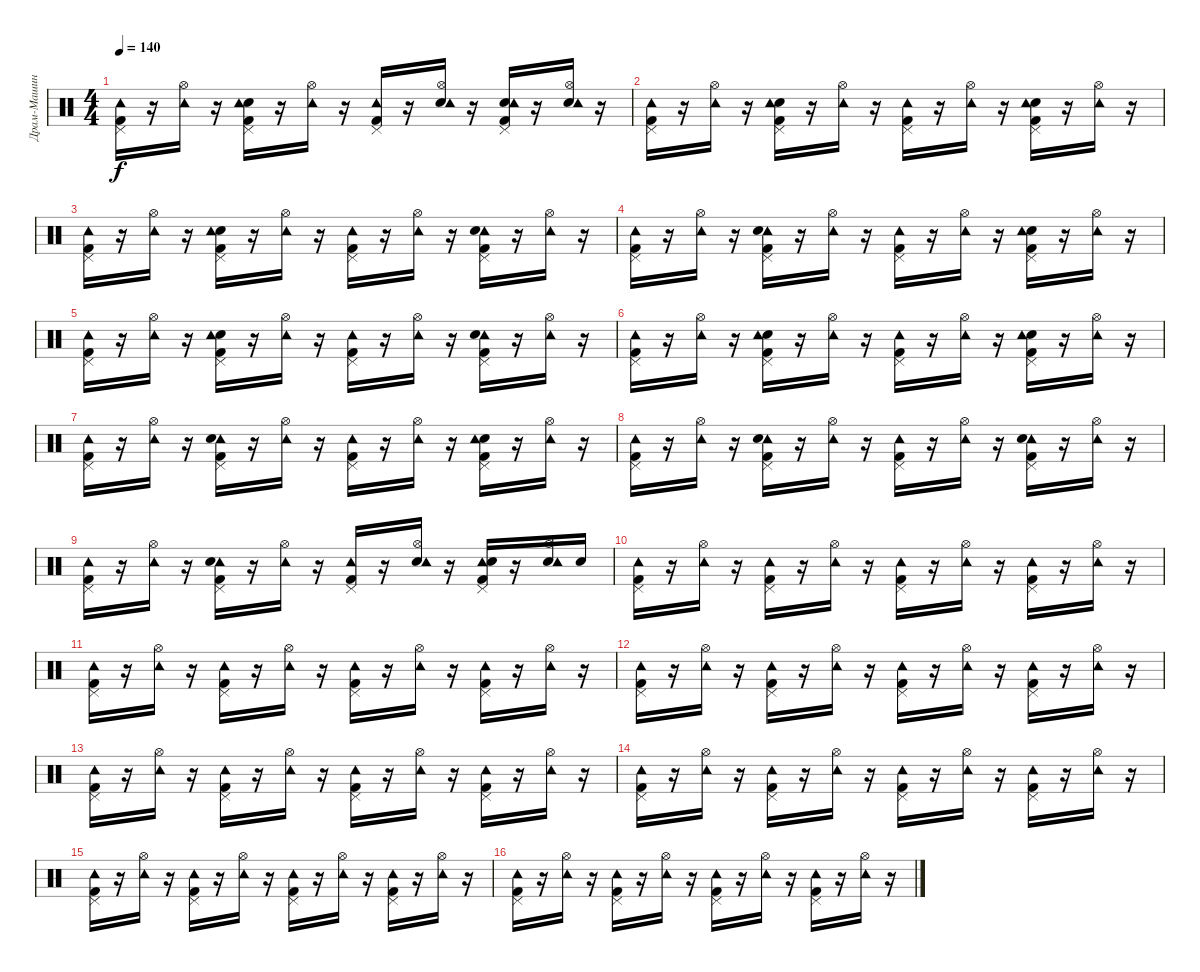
\track ("Драм-Машина" "Драм-Машин") {instrument percussion}
\staff {score}
\articulation defaults
\ts (4 4)
\tempo 140
\clef neutral
\ks c
("Pedal Hi-Hat (hit)" "Tambourine (hit)" "Kick (hit) 2").16{dy f} r.16 ("Hi-Hat (open)" "Tambourine (hit)").16 r.16 ("Kick (hit) 2" "Pedal Hi-Hat (hit)" "Snare (hit) 2" "Tambourine (hit)").16 r.16 ("Tambourine (hit)" "Hi-Hat (open)").16 r.16 ("Tambourine (hit)" "Pedal Hi-Hat (hit)" "Kick (hit) 2").16 r.16 ("Snare (hit) 2" "Tambourine (hit)" "Hi-Hat (open)").16 r.16 ("Kick (hit) 2" "Snare (hit) 2" "Tambourine (hit)" "Pedal Hi-Hat (hit)").16 r.16 ("Snare (hit) 2" "Tambourine (hit)" "Hi-Hat (open)").16 r.16 |
("Tambourine (hit)" "Kick (hit) 2" "Pedal Hi-Hat (hit)").16 r.16 ("Tambourine (hit)" "Hi-Hat (open)").16 r.16 ("Kick (hit) 2" "Snare (hit) 2" "Pedal Hi-Hat (hit)" "Tambourine (hit)").16 r.16 ("Hi-Hat (open)" "Tambourine (hit)").16 r.16 ("Kick (hit) 2" "Pedal Hi-Hat (hit)" "Tambourine (hit)").16 r.16 ("Tambourine (hit)" "Hi-Hat (open)").16 r.16 ("Kick (hit) 2" "Snare (hit) 2" "Tambourine (hit)" "Pedal Hi-Hat (hit)").16 r.16 ("Tambourine (hit)" "Hi-Hat (open)").16 r.16 |
("Kick (hit) 2" "Pedal Hi-Hat (hit)" "Tambourine (hit)").16 r.16 ("Hi-Hat (open)" "Tambourine (hit)").16 r.16 ("Kick (hit) 2" "Snare (hit) 2" "Tambourine (hit)" "Pedal Hi-Hat (hit)").16 r.16 ("Tambourine (hit)" "Hi-Hat (open)").16 r.16 ("Tambourine (hit)" "Kick (hit) 2" "Pedal Hi-Hat (hit)").16 r.16 ("Hi-Hat (open)" "Tambourine (hit)").16 r.16 ("Kick (hit) 2" "Tambourine (hit)" "Snare (hit) 2" "Pedal Hi-Hat (hit)").16 r.16 ("Tambourine (hit)" "Hi-Hat (open)").16 r.16 |
("Pedal Hi-Hat (hit)" "Kick (hit) 2" "Tambourine (hit)").16 r.16 ("Hi-Hat (open)" "Tambourine (hit)").16 r.16 ("Kick (hit) 2" "Tambourine (hit)" "Snare (hit) 2" "Pedal Hi-Hat (hit)").16 r.16 ("Hi-Hat (open)" "Tambourine (hit)").16 r.16 ("Kick (hit) 2" "Tambourine (hit)" "Pedal Hi-Hat (hit)").16 r.16 ("Hi-Hat (open)" "Tambourine (hit)").16 r.16 ("Kick (hit) 2" "Snare (hit) 2" "Tambourine (hit)" "Pedal Hi-Hat (hit)").16 r.16 ("Tambourine (hit)" "Hi-Hat (open)").16 r.16 |
("Tambourine (hit)" "Kick (hit) 2" "Pedal Hi-Hat (hit)").16 r.16 ("Tambourine (hit)" "Hi-Hat (open)").16 r.16 ("Kick (hit) 2" "Snare (hit) 2" "Pedal Hi-Hat (hit)" "Tambourine (hit)").16 r.16 ("Hi-Hat (open)" "Tambourine (hit)").16 r.16 ("Kick (hit) 2" "Tambourine (hit)" "Pedal Hi-Hat (hit)").16 r.16 ("Tambourine (hit)" "Hi-Hat (open)").16 r.16 ("Kick (hit) 2" "Tambourine (hit)" "Snare (hit) 2" "Pedal Hi-Hat (hit)").16 r.16 ("Hi-Hat (open)" "Tambourine (hit)").16 r.16 |
("Tambourine (hit)" "Pedal Hi-Hat (hit)" "Kick (hit) 2").16 r.16 ("Tambourine (hit)" "Hi-Hat (open)").16 r.16 ("Kick (hit) 2" "Pedal Hi-Hat (hit)" "Snare (hit) 2" "Tambourine (hit)").16 r.16 ("Hi-Hat (open)" "Tambourine (hit)").16 r.16 ("Kick (hit) 2" "Pedal Hi-Hat (hit)" "Tambourine (hit)").16 r.16 ("Tambourine (hit)" "Hi-Hat (open)").16 r.16 ("Kick (hit) 2" "Snare (hit) 2" "Tambourine (hit)" "Pedal Hi-Hat (hit)").16 r.16 ("Hi-Hat (open)" "Tambourine (hit)").16 r.16 |
("Tambourine (hit)" "Kick (hit) 2" "Pedal Hi-Hat (hit)").16 r.16 ("Hi-Hat (open)" "Tambourine (hit)").16 r.16 ("Kick (hit) 2" "Tambourine (hit)" "Pedal Hi-Hat (hit)" "Snare (hit) 2").16 r.16 ("Tambourine (hit)" "Hi-Hat (open)").16 r.16 ("Pedal Hi-Hat (hit)" "Tambourine (hit)" "Kick (hit) 2").16 r.16 ("Hi-Hat (open)" "Tambourine (hit)").16 r.16 ("Kick (hit) 2" "Pedal Hi-Hat (hit)" "Snare (hit) 2" "Tambourine (hit)").16 r.16 ("Hi-Hat (open)" "Tambourine (hit)").16 r.16 |
("Tambourine (hit)" "Pedal Hi-Hat (hit)" "Kick (hit) 2").16 r.16 ("Hi-Hat (open)" "Tambourine (hit)").16 r.16 ("Kick (hit) 2" "Tambourine (hit)" "Pedal Hi-Hat (hit)" "Snare (hit) 2").16 r.16 ("Hi-Hat (open)" "Tambourine (hit)").16 r.16 ("Tambourine (hit)" "Kick (hit) 2" "Pedal Hi-Hat (hit)").16 r.16 ("Tambourine (hit)" "Hi-Hat (open)").16 r.16 ("Kick (hit) 2" "Pedal Hi-Hat (hit)" "Tambourine (hit)" "Snare (hit) 2").16 r.16 ("Hi-Hat (open)" "Tambourine (hit)").16 r.16 |
("Pedal Hi-Hat (hit)" "Kick (hit) 2" "Tambourine (hit)").16 r.16 ("Tambourine (hit)" "Hi-Hat (open)").16 r.16 ("Kick (hit) 2" "Pedal Hi-Hat (hit)" "Tambourine (hit)" "Snare (hit) 2").16 r.16 ("Hi-Hat (open)" "Tambourine (hit)").16 r.16 ("Kick (hit) 2" "Pedal Hi-Hat (hit)" "Tambourine (hit)").16 r.16 ("Snare (hit) 2" "Hi-Hat (open)" "Tambourine (hit)").16 r.16 ("Kick (hit) 2" "Pedal Hi-Hat (hit)" "Tambourine (hit)" "Snare (hit) 2").16 r.16 ("Hi-Hat (open)" "Snare (hit) 2" "Tambourine (hit)").16 "Snare (hit) 2".16 |
("Kick (hit) 2" "Tambourine (hit)" "Pedal Hi-Hat (hit)").16 r.16 ("Hi-Hat (open)" "Tambourine (hit)").16 r.16 ("Kick (hit) 2" "Pedal Hi-Hat (hit)" "Tambourine (hit)").16 r.16 ("Hi-Hat (open)" "Tambourine (hit)").16 r.16 ("Kick (hit) 2" "Tambourine (hit)" "Pedal Hi-Hat (hit)").16 r.16 ("Tambourine (hit)" "Hi-Hat (open)").16 r.16 ("Kick (hit) 2" "Tambourine (hit)" "Pedal Hi-Hat (hit)").16 r.16 ("Hi-Hat (open)" "Tambourine (hit)").16 r.16 |
("Kick (hit) 2" "Tambourine (hit)" "Pedal Hi-Hat (hit)").16 r.16 ("Tambourine (hit)" "Hi-Hat (open)").16 r.16 ("Kick (hit) 2" "Pedal Hi-Hat (hit)" "Tambourine (hit)").16 r.16 ("Tambourine (hit)" "Hi-Hat (open)").16 r.16 ("Pedal Hi-Hat (hit)" "Kick (hit) 2" "Tambourine (hit)").16 r.16 ("Hi-Hat (open)" "Tambourine (hit)").16 r.16 ("Kick (hit) 2" "Pedal Hi-Hat (hit)" "Tambourine (hit)").16 r.16 ("Tambourine (hit)" "Hi-Hat (open)").16 r.16 |
("Pedal Hi-Hat (hit)" "Tambourine (hit)" "Kick (hit) 2").16 r.16 ("Hi-Hat (open)" "Tambourine (hit)").16 r.16 ("Kick (hit) 2" "Tambourine (hit)" "Pedal Hi-Hat (hit)").16 r.16 ("Hi-Hat (open)" "Tambourine (hit)").16 r.16 ("Tambourine (hit)" "Kick (hit) 2" "Pedal Hi-Hat (hit)").16 r.16 ("Tambourine (hit)" "Hi-Hat (open)").16 r.16 ("Kick (hit) 2" "Tambourine (hit)" "Pedal Hi-Hat (hit)").16 r.16 ("Tambourine (hit)" "Hi-Hat (open)").16 r.16 |
("Pedal Hi-Hat (hit)" "Tambourine (hit)" "Kick (hit) 2").16 r.16 ("Tambourine (hit)" "Hi-Hat (open)").16 r.16 ("Kick (hit) 2" "Pedal Hi-Hat (hit)" "Tambourine (hit)").16 r.16 ("Tambourine (hit)" "Hi-Hat (open)").16 r.16 ("Tambourine (hit)" "Kick (hit) 2" "Pedal Hi-Hat (hit)").16 r.16 ("Hi-Hat (open)" "Tambourine (hit)").16 r.16 ("Kick (hit) 2" "Tambourine (hit)" "Pedal Hi-Hat (hit)").16 r.16 ("Tambourine (hit)" "Hi-Hat (open)").16 r.16 |
("Kick (hit) 2" "Tambourine (hit)" "Pedal Hi-Hat (hit)").16 r.16 ("Hi-Hat (open)" "Tambourine (hit)").16 r.16 ("Kick (hit) 2" "Pedal Hi-Hat (hit)" "Tambourine (hit)").16 r.16 ("Hi-Hat (open)" "Tambourine (hit)").16 r.16 ("Kick (hit) 2" "Tambourine (hit)" "Pedal Hi-Hat (hit)").16 r.16 ("Tambourine (hit)" "Hi-Hat (open)").16 r.16 ("Kick (hit) 2" "Tambourine (hit)" "Pedal Hi-Hat (hit)").16 r.16 ("Hi-Hat (open)" "Tambourine (hit)").16 r.16 |
("Kick (hit) 2" "Tambourine (hit)" "Pedal Hi-Hat (hit)").16 r.16 ("Tambourine (hit)" "Hi-Hat (open)").16 r.16 ("Kick (hit) 2" "Pedal Hi-Hat (hit)" "Tambourine (hit)").16 r.16 ("Tambourine (hit)" "Hi-Hat (open)").16 r.16 ("Pedal Hi-Hat (hit)" "Kick (hit) 2" "Tambourine (hit)").16 r.16 ("Hi-Hat (open)" "Tambourine (hit)").16 r.16 ("Kick (hit) 2" "Pedal Hi-Hat (hit)" "Tambourine (hit)").16 r.16 ("Tambourine (hit)" "Hi-Hat (open)").16 r.16 |
("Pedal Hi-Hat (hit)" "Tambourine (hit)" "Kick (hit) 2").16 r.16 ("Hi-Hat (open)" "Tambourine (hit)").16 r.16 ("Kick (hit) 2" "Tambourine (hit)" "Pedal Hi-Hat (hit)").16 r.16 ("Hi-Hat (open)" "Tambourine (hit)").16 r.16 ("Tambourine (hit)" "Kick (hit) 2" "Pedal Hi-Hat (hit)").16 r.16 ("Tambourine (hit)" "Hi-Hat (open)").16 r.16 ("Kick (hit) 2" "Tambourine (hit)" "Pedal Hi-Hat (hit)").16 r.16 ("Tambourine (hit)" "Hi-Hat (open)").16 r.16
